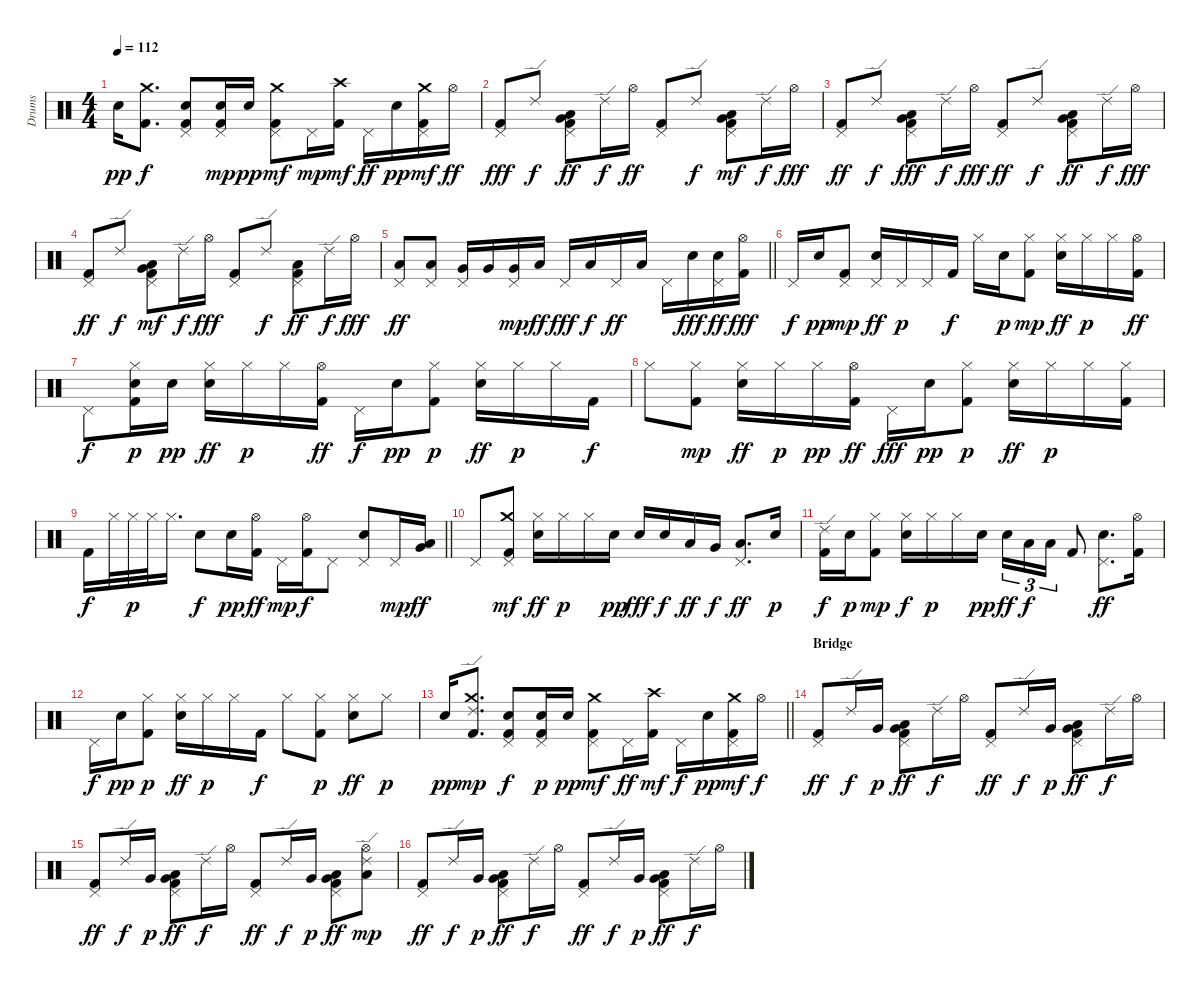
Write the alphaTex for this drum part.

\track ("Drums" "Drums") {instrument percussion}
\staff {score}
\articulation defaults
\ts (4 4)
\tempo 112
\clef neutral
\ks c "Snare (hit) 2".16{dy pp}
("Kick (hit) 2" "Crash medium (hit)").8{d dy f} ("Kick (hit) 2" "Snare (hit) 2" "Pedal Hi-Hat (hit)").8 ("Kick (hit) 2" "Snare (hit) 2" "Pedal Hi-Hat (hit)").16{dy mp} "Snare (hit) 2".16{dy pp} ("Kick (hit) 2" "Pedal Hi-Hat (hit)" "Crash medium (hit)").8{dy mf} "Pedal Hi-Hat (hit)".16{dy mp} ("Kick (hit) 2" "Crash high (hit)").16{dy mf} "Pedal Hi-Hat (hit)".16{dy ff} "Snare (hit) 2".16{dy pp} ("Kick (hit) 2" "Pedal Hi-Hat (hit)" "Crash medium (hit)").16{dy mf} "Hi-Hat (open)".16{dy ff} |
("Kick (hit) 2" "Pedal Hi-Hat (hit)").8{dy fff} "Ride (edge) 2".8{dy f} ("Kick (hit) 2" "Pedal Hi-Hat (hit)" "Very Low Tom (hit)" "Low Floor Tom (hit)").8{dy ff} "Ride (edge) 2".16{dy f} "Hi-Hat (open)".16{dy ff} ("Kick (hit) 2" "Pedal Hi-Hat (hit)").8 "Ride (edge) 2".8{dy f} ("Kick (hit) 2" "Pedal Hi-Hat (hit)" "Very Low Tom (hit)" "Low Floor Tom (hit)").8{dy mf} "Ride (edge) 2".16{dy f} "Hi-Hat (open)".16{dy fff} |
("Kick (hit) 2" "Pedal Hi-Hat (hit)").8{dy ff} "Ride (edge) 2".8{dy f} ("Kick (hit) 2" "Pedal Hi-Hat (hit)" "Very Low Tom (hit)" "Low Floor Tom (hit)").8{dy fff} "Ride (edge) 2".16{dy f} "Hi-Hat (open)".16{dy fff} ("Kick (hit) 2" "Pedal Hi-Hat (hit)").8{dy ff} "Ride (edge) 2".8{dy f} ("Kick (hit) 2" "Pedal Hi-Hat (hit)" "Very Low Tom (hit)" "Low Floor Tom (hit)").8{dy ff} "Ride (edge) 2".16{dy f} "Hi-Hat (open)".16{dy fff} |
("Kick (hit) 2" "Pedal Hi-Hat (hit)").8{dy ff} "Ride (edge) 2".8{dy f} ("Kick (hit) 2" "Pedal Hi-Hat (hit)" "Very Low Tom (hit)" "Low Floor Tom (hit)").8{dy mf} "Ride (edge) 2".16{dy f} "Hi-Hat (open)".16{dy fff} ("Kick (hit) 2" "Pedal Hi-Hat (hit)").8 "Ride (edge) 2".8{dy f} ("Kick (hit) 2" "Pedal Hi-Hat (hit)" "Low Floor Tom (hit)").8{dy ff} "Ride (edge) 2".16{dy f} "Hi-Hat (open)".16{dy fff} |
\barLineRight lightlight
("Pedal Hi-Hat (hit)" "Low Tom (hit)").8{dy ff} ("Pedal Hi-Hat (hit)" "Low Tom (hit)").8 ("Pedal Hi-Hat (hit)" "Very Low Tom (hit)").16 "Very Low Tom (hit)".16 ("Pedal Hi-Hat (hit)" "Very Low Tom (hit)").16{dy mp} "Low Floor Tom (hit)".16{dy ff} "Pedal Hi-Hat (hit)".16{dy fff} "Low Floor Tom (hit)".16{dy f} "Pedal Hi-Hat (hit)".16{dy ff} "Low Floor Tom (hit)".16 "Pedal Hi-Hat (hit)".16 "Snare (hit) 2".16{dy fff} ("Snare (hit) 2" "Pedal Hi-Hat (hit)").16{dy ff} ("Kick (hit) 2" "Hi-Hat (open)").16{dy fff} |
"Pedal Hi-Hat (hit)".16{dy f} "Snare (hit) 2".16{dy pp} ("Kick (hit) 2" "Pedal Hi-Hat (hit)").8{dy mp} ("Snare (hit) 2" "Pedal Hi-Hat (hit)").16{dy ff} "Pedal Hi-Hat (hit)".16{dy p} "Pedal Hi-Hat (hit)".16 "Kick (hit) 2".16{dy f} "Hi-Hat (closed)".16 "Snare (hit) 2".16{dy p} ("Kick (hit) 2" "Hi-Hat (closed)").8{dy mp} ("Snare (hit) 2" "Hi-Hat (closed)").16{dy ff} "Hi-Hat (closed)".16{dy p} "Hi-Hat (closed)".16 ("Kick (hit) 2" "Hi-Hat (open)").16{dy ff} |
"Pedal Hi-Hat (hit)".8{dy f} ("Kick (hit) 2" "Snare (hit) 2" "Hi-Hat (closed)").16{dy p} "Snare (hit) 2".16{dy pp} ("Snare (hit) 2" "Hi-Hat (closed)").16{dy ff} "Hi-Hat (closed)".16{dy p} "Hi-Hat (closed)".16 ("Kick (hit) 2" "Hi-Hat (open)").16{dy ff} "Pedal Hi-Hat (hit)".16{dy f} "Snare (hit) 2".16{dy pp} ("Kick (hit) 2" "Hi-Hat (closed)").8{dy p} ("Snare (hit) 2" "Hi-Hat (closed)").16{dy ff} "Hi-Hat (closed)".16{dy p} "Hi-Hat (closed)".16 "Kick (hit) 2".16{dy f} |
"Hi-Hat (closed)".8 ("Kick (hit) 2" "Hi-Hat (closed)").8{dy mp} ("Snare (hit) 2" "Hi-Hat (closed)").16{dy ff} "Hi-Hat (closed)".16{dy p} "Hi-Hat (closed)".16{dy pp} ("Kick (hit) 2" "Hi-Hat (open)").16{dy ff} "Pedal Hi-Hat (hit)".16{dy fff} "Snare (hit) 2".16{dy pp} ("Kick (hit) 2" "Hi-Hat (closed)").8{dy p} ("Snare (hit) 2" "Hi-Hat (closed)").16{dy ff} "Hi-Hat (closed)".16{dy p} "Hi-Hat (closed)".16 ("Kick (hit) 2" "Hi-Hat (closed)").16 |
\barLineRight lightlight "Kick (hit) 2".16{dy f} "Hi-Hat (closed)".32 "Hi-Hat (closed)".32{dy p} "Hi-Hat (closed)".32 "Hi-Hat (closed)".16{d} "Snare (hit) 2".8{dy f} "Snare (hit) 2".16{dy pp}
("Kick (hit) 2" "Hi-Hat (open)").16{dy ff} "Pedal Hi-Hat (hit)".16{dy mp} ("Kick (hit) 2" "Hi-Hat (open)").16{dy f} "Pedal Hi-Hat (hit)".8 ("Snare (hit) 2" "Pedal Hi-Hat (hit)").8 "Pedal Hi-Hat (hit)".16{dy mp} ("Low Tom (hit)" "Very Low Tom (hit)").16{dy ff} |
"Pedal Hi-Hat (hit)".8 ("Kick (hit) 2" "Pedal Hi-Hat (hit)" "Crash medium (hit)").8{dy mf} ("Snare (hit) 2" "Hi-Hat (closed)").16{dy ff} "Hi-Hat (closed)".16{dy p} "Hi-Hat (closed)".16 "Snare (hit) 2".16{dy pp} "Snare (hit) 2".16{dy fff} "Snare (hit) 2".16{dy f} "Low Tom (hit)".16{dy ff} "Very Low Tom (hit)".16{dy f} ("Pedal Hi-Hat (hit)" "Low Floor Tom (hit)").8{d dy ff} "Snare (hit) 2".16{dy p} |
("Kick (hit) 2" "Ride (edge) 2").16{dy f} "Snare (hit) 2".16{dy p} ("Kick (hit) 2" "Hi-Hat (closed)").8{dy mp} ("Snare (hit) 2" "Hi-Hat (closed)").16{dy f} "Hi-Hat (closed)".16{dy p} "Hi-Hat (closed)".16 "Snare (hit) 2".16{dy pp} "Snare (hit) 2".16{tu (3 2) dy ff} "Low Tom (hit)".16{tu (3 2) dy f} "Low Floor Tom (hit)".16{tu (3 2)} "Kick (hit) 2".8 ("Snare (hit) 2" "Pedal Hi-Hat (hit)").8{d dy ff} ("Kick (hit) 2" "Hi-Hat (open)").16 |
"Pedal Hi-Hat (hit)".16{dy f} "Snare (hit) 2".16{dy pp} ("Kick (hit) 2" "Hi-Hat (closed)").8{dy p} ("Snare (hit) 2" "Hi-Hat (closed)").16{dy ff} "Hi-Hat (closed)".16{dy p} "Hi-Hat (closed)".16 "Kick (hit) 2".16{dy f} "Hi-Hat (closed)".8 ("Kick (hit) 2" "Hi-Hat (closed)").8{dy p} ("Snare (hit) 2" "Hi-Hat (closed)").8{dy ff} "Hi-Hat (closed)".8{dy p} |
\barLineRight lightlight "Snare (hit) 2".16{dy pp}
("Kick (hit) 2" "Crash medium (hit)" "Ride (edge) 2").8{d dy mp} ("Kick (hit) 2" "Snare (hit) 2" "Pedal Hi-Hat (hit)").8{dy f} ("Kick (hit) 2" "Snare (hit) 2" "Pedal Hi-Hat (hit)").16{dy p} "Snare (hit) 2".16{dy pp} ("Kick (hit) 2" "Pedal Hi-Hat (hit)" "Crash medium (hit)").8{dy mf} "Pedal Hi-Hat (hit)".16{dy ff} ("Kick (hit) 2" "Crash high (hit)").16{dy mf} "Pedal Hi-Hat (hit)".16{dy f} "Snare (hit) 2".16{dy pp} ("Kick (hit) 2" "Pedal Hi-Hat (hit)" "Crash medium (hit)").16{dy mf} "Hi-Hat (open)".16{dy f} |
\section ("" "Bridge")
("Kick (hit) 2" "Pedal Hi-Hat (hit)").8{dy ff} "Ride (edge) 2".16{dy f} "Very Low Tom (hit)".16{dy p} ("Kick (hit) 2" "Pedal Hi-Hat (hit)" "Very Low Tom (hit)" "Low Floor Tom (hit)").8{dy ff} "Ride (edge) 2".16{dy f} "Hi-Hat (open)".16 ("Kick (hit) 2" "Pedal Hi-Hat (hit)").8{dy ff} "Ride (edge) 2".16{dy f} "Very Low Tom (hit)".16{dy p} ("Kick (hit) 2" "Pedal Hi-Hat (hit)" "Very Low Tom (hit)" "Low Floor Tom (hit)").8{dy ff} "Ride (edge) 2".16{dy f} "Hi-Hat (open)".16 |
("Kick (hit) 2" "Pedal Hi-Hat (hit)").8{dy ff} "Ride (edge) 2".16{dy f} "Very Low Tom (hit)".16{dy p} ("Kick (hit) 2" "Pedal Hi-Hat (hit)" "Very Low Tom (hit)" "Low Floor Tom (hit)").8{dy ff} "Ride (edge) 2".16{dy f} "Hi-Hat (open)".16 ("Kick (hit) 2" "Pedal Hi-Hat (hit)").8{dy ff} "Ride (edge) 2".16{dy f} "Very Low Tom (hit)".16{dy p} ("Kick (hit) 2" "Pedal Hi-Hat (hit)" "Very Low Tom (hit)" "Low Floor Tom (hit)").8{dy ff} ("Hi-Hat (open)" "Low Floor Tom (hit)" "Ride (edge) 2").8{dy mp} |
("Kick (hit) 2" "Pedal Hi-Hat (hit)").8{dy ff} "Ride (edge) 2".16{dy f} "Very Low Tom (hit)".16{dy p} ("Kick (hit) 2" "Pedal Hi-Hat (hit)" "Very Low Tom (hit)" "Low Floor Tom (hit)").8{dy ff} "Ride (edge) 2".16{dy f} "Hi-Hat (open)".16 ("Kick (hit) 2" "Pedal Hi-Hat (hit)").8{dy ff} "Ride (edge) 2".16{dy f} "Very Low Tom (hit)".16{dy p} ("Kick (hit) 2" "Pedal Hi-Hat (hit)" "Very Low Tom (hit)" "Low Floor Tom (hit)").8{dy ff} "Ride (edge) 2".16{dy f} "Hi-Hat (open)".16
